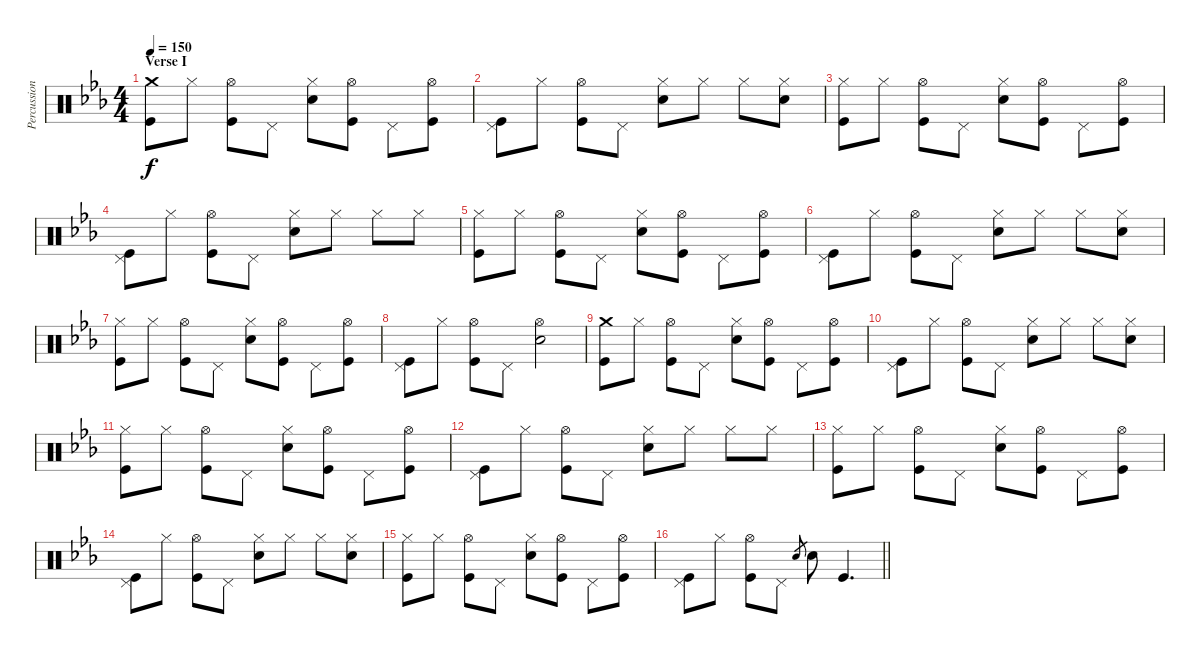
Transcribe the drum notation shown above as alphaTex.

\track ("Percussion" "Percussion") {instrument percussion}
\staff {score}
\articulation defaults
\ts (4 4)
\section ("" "Verse I")
\tempo 150
\clef neutral
\ks eb
("Crash medium (hit)" "Kick (hit)").8{dy f} "Hi-Hat (closed)".8 ("Hi-Hat (open)" "Kick (hit)").8 "Pedal Hi-Hat (hit)".8 ("Hi-Hat (closed)" "Electric Snare (hit)").8 ("Hi-Hat (open)" "Kick (hit)").8 "Pedal Hi-Hat (hit)".8 ("Hi-Hat (open)" "Kick (hit)").8 |
("Pedal Hi-Hat (hit)" "Kick (hit)").8 "Hi-Hat (closed)".8 ("Hi-Hat (open)" "Kick (hit)").8 "Pedal Hi-Hat (hit)".8 ("Hi-Hat (closed)" "Electric Snare (hit)").8 "Hi-Hat (closed)".8 "Hi-Hat (closed)".8 ("Hi-Hat (closed)" "Electric Snare (hit)").8 |
("Hi-Hat (closed)" "Kick (hit)").8 "Hi-Hat (closed)".8 ("Hi-Hat (open)" "Kick (hit)").8 "Pedal Hi-Hat (hit)".8 ("Hi-Hat (closed)" "Electric Snare (hit)").8 ("Hi-Hat (open)" "Kick (hit)").8 "Pedal Hi-Hat (hit)".8 ("Hi-Hat (open)" "Kick (hit)").8 |
("Pedal Hi-Hat (hit)" "Kick (hit)").8 "Hi-Hat (closed)".8 ("Hi-Hat (open)" "Kick (hit)").8 "Pedal Hi-Hat (hit)".8 ("Hi-Hat (closed)" "Electric Snare (hit)").8 "Hi-Hat (closed)".8 "Hi-Hat (closed)".8 "Hi-Hat (closed)".8 |
("Hi-Hat (closed)" "Kick (hit)").8 "Hi-Hat (closed)".8 ("Hi-Hat (open)" "Kick (hit)").8 "Pedal Hi-Hat (hit)".8 ("Hi-Hat (closed)" "Electric Snare (hit)").8 ("Hi-Hat (open)" "Kick (hit)").8 "Pedal Hi-Hat (hit)".8 ("Hi-Hat (open)" "Kick (hit)").8 |
("Pedal Hi-Hat (hit)" "Kick (hit)").8 "Hi-Hat (closed)".8 ("Hi-Hat (open)" "Kick (hit)").8 "Pedal Hi-Hat (hit)".8 ("Hi-Hat (closed)" "Electric Snare (hit)").8 "Hi-Hat (closed)".8 "Hi-Hat (closed)".8 ("Hi-Hat (closed)" "Electric Snare (hit)").8 |
("Hi-Hat (closed)" "Kick (hit)").8 "Hi-Hat (closed)".8 ("Hi-Hat (open)" "Kick (hit)").8 "Pedal Hi-Hat (hit)".8 ("Hi-Hat (closed)" "Electric Snare (hit)").8 ("Hi-Hat (open)" "Kick (hit)").8 "Pedal Hi-Hat (hit)".8 ("Hi-Hat (open)" "Kick (hit)").8 |
("Pedal Hi-Hat (hit)" "Kick (hit)").8 "Hi-Hat (closed)".8 ("Hi-Hat (open)" "Kick (hit)").8 "Pedal Hi-Hat (hit)".8 ("Hi-Hat (open)" "Electric Snare (hit)").2 |
("Crash medium (hit)" "Kick (hit)").8 "Hi-Hat (closed)".8 ("Hi-Hat (open)" "Kick (hit)").8 "Pedal Hi-Hat (hit)".8 ("Hi-Hat (closed)" "Electric Snare (hit)").8 ("Hi-Hat (open)" "Kick (hit)").8 "Pedal Hi-Hat (hit)".8 ("Hi-Hat (open)" "Kick (hit)").8 |
("Pedal Hi-Hat (hit)" "Kick (hit)").8 "Hi-Hat (closed)".8 ("Hi-Hat (open)" "Kick (hit)").8 "Pedal Hi-Hat (hit)".8 ("Hi-Hat (closed)" "Electric Snare (hit)").8 "Hi-Hat (closed)".8 "Hi-Hat (closed)".8 ("Hi-Hat (closed)" "Electric Snare (hit)").8 |
("Hi-Hat (closed)" "Kick (hit)").8 "Hi-Hat (closed)".8 ("Hi-Hat (open)" "Kick (hit)").8 "Pedal Hi-Hat (hit)".8 ("Hi-Hat (closed)" "Electric Snare (hit)").8 ("Hi-Hat (open)" "Kick (hit)").8 "Pedal Hi-Hat (hit)".8 ("Hi-Hat (open)" "Kick (hit)").8 |
("Pedal Hi-Hat (hit)" "Kick (hit)").8 "Hi-Hat (closed)".8 ("Hi-Hat (open)" "Kick (hit)").8 "Pedal Hi-Hat (hit)".8 ("Hi-Hat (closed)" "Electric Snare (hit)").8 "Hi-Hat (closed)".8 "Hi-Hat (closed)".8 "Hi-Hat (closed)".8 |
("Hi-Hat (closed)" "Kick (hit)").8 "Hi-Hat (closed)".8 ("Hi-Hat (open)" "Kick (hit)").8 "Pedal Hi-Hat (hit)".8 ("Hi-Hat (closed)" "Electric Snare (hit)").8 ("Hi-Hat (open)" "Kick (hit)").8 "Pedal Hi-Hat (hit)".8 ("Hi-Hat (open)" "Kick (hit)").8 |
("Pedal Hi-Hat (hit)" "Kick (hit)").8 "Hi-Hat (closed)".8 ("Hi-Hat (open)" "Kick (hit)").8 "Pedal Hi-Hat (hit)".8 ("Hi-Hat (closed)" "Electric Snare (hit)").8 "Hi-Hat (closed)".8 "Hi-Hat (closed)".8 ("Hi-Hat (closed)" "Electric Snare (hit)").8 |
("Hi-Hat (closed)" "Kick (hit)").8 "Hi-Hat (closed)".8 ("Hi-Hat (open)" "Kick (hit)").8 "Pedal Hi-Hat (hit)".8 ("Hi-Hat (closed)" "Electric Snare (hit)").8 ("Hi-Hat (open)" "Kick (hit)").8 "Pedal Hi-Hat (hit)".8 ("Hi-Hat (open)" "Kick (hit)").8 |
\barLineRight lightlight
("Pedal Hi-Hat (hit)" "Kick (hit)").8 "Hi-Hat (closed)".8 ("Hi-Hat (open)" "Kick (hit)").8 "Pedal Hi-Hat (hit)".8 "Electric Snare (hit)".8{gr} "Electric Snare (hit)".8 "Kick (hit)".4{d}
